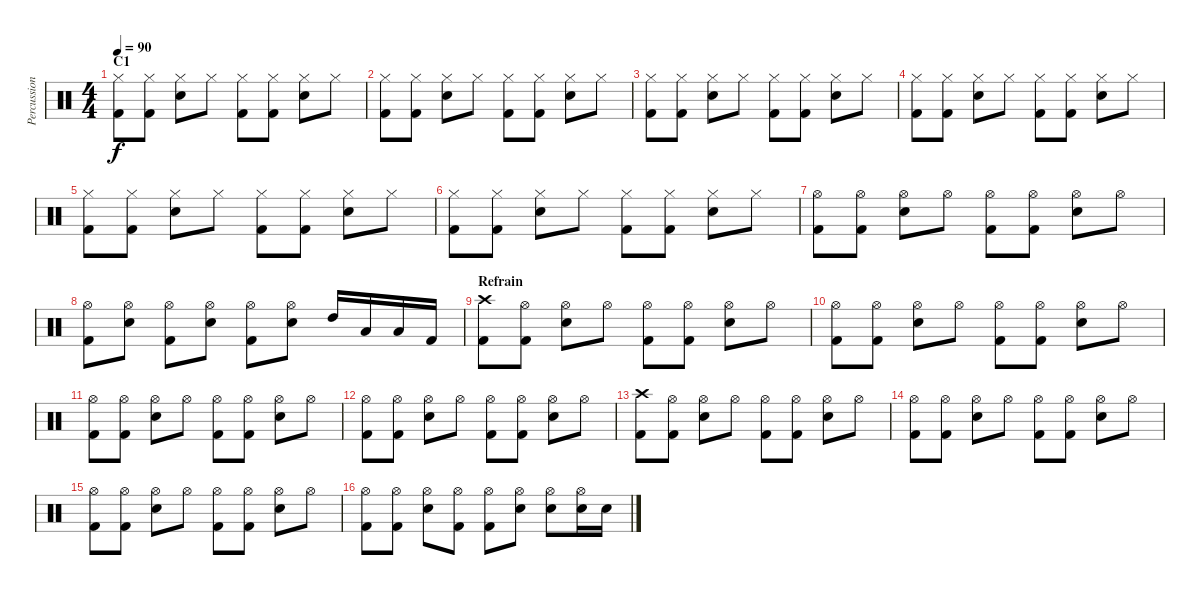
\track ("Percussions" "Percussion") {instrument percussion}
\staff {score}
\articulation defaults
\ts (4 4)
\section ("" "C1")
\tempo 90
\clef neutral
\ks c
("Hi-Hat (closed)" "Kick (hit) 2").8{dy f} ("Hi-Hat (closed)" "Kick (hit) 2").8 ("Hi-Hat (closed)" "Electric Snare (hit)").8 "Hi-Hat (closed)".8 ("Hi-Hat (closed)" "Kick (hit) 2").8 ("Hi-Hat (closed)" "Kick (hit) 2").8 ("Hi-Hat (closed)" "Electric Snare (hit)").8 "Hi-Hat (closed)".8 |
("Hi-Hat (closed)" "Kick (hit) 2").8 ("Hi-Hat (closed)" "Kick (hit) 2").8 ("Hi-Hat (closed)" "Electric Snare (hit)").8 "Hi-Hat (closed)".8 ("Hi-Hat (closed)" "Kick (hit) 2").8 ("Hi-Hat (closed)" "Kick (hit) 2").8 ("Hi-Hat (closed)" "Electric Snare (hit)").8 "Hi-Hat (closed)".8 |
("Hi-Hat (closed)" "Kick (hit) 2").8 ("Hi-Hat (closed)" "Kick (hit) 2").8 ("Hi-Hat (closed)" "Electric Snare (hit)").8 "Hi-Hat (closed)".8 ("Hi-Hat (closed)" "Kick (hit) 2").8 ("Hi-Hat (closed)" "Kick (hit) 2").8 ("Hi-Hat (closed)" "Electric Snare (hit)").8 "Hi-Hat (closed)".8 |
("Hi-Hat (closed)" "Kick (hit) 2").8 ("Hi-Hat (closed)" "Kick (hit) 2").8 ("Hi-Hat (closed)" "Electric Snare (hit)").8 "Hi-Hat (closed)".8 ("Hi-Hat (closed)" "Kick (hit) 2").8 ("Hi-Hat (closed)" "Kick (hit) 2").8 ("Hi-Hat (closed)" "Electric Snare (hit)").8 "Hi-Hat (closed)".8 |
("Hi-Hat (closed)" "Kick (hit) 2").8 ("Hi-Hat (closed)" "Kick (hit) 2").8 ("Hi-Hat (closed)" "Electric Snare (hit)").8 "Hi-Hat (closed)".8 ("Hi-Hat (closed)" "Kick (hit) 2").8 ("Hi-Hat (closed)" "Kick (hit) 2").8 ("Hi-Hat (closed)" "Electric Snare (hit)").8 "Hi-Hat (closed)".8 |
("Hi-Hat (closed)" "Kick (hit) 2").8 ("Hi-Hat (closed)" "Kick (hit) 2").8 ("Hi-Hat (closed)" "Electric Snare (hit)").8 "Hi-Hat (closed)".8 ("Hi-Hat (closed)" "Kick (hit) 2").8 ("Hi-Hat (closed)" "Kick (hit) 2").8 ("Hi-Hat (closed)" "Electric Snare (hit)").8 "Hi-Hat (closed)".8 |
("Hi-Hat (open)" "Kick (hit) 2").8 ("Hi-Hat (open)" "Kick (hit) 2").8 ("Hi-Hat (open)" "Snare (hit) 2").8 "Hi-Hat (open)".8 ("Hi-Hat (open)" "Kick (hit) 2").8 ("Hi-Hat (open)" "Kick (hit) 2").8 ("Hi-Hat (open)" "Snare (hit) 2").8 "Hi-Hat (open)".8 |
("Hi-Hat (open)" "Kick (hit) 2").8 ("Hi-Hat (open)" "Snare (hit) 2").8 ("Hi-Hat (open)" "Kick (hit) 2").8 ("Hi-Hat (open)" "Snare (hit) 2").8 ("Hi-Hat (open)" "Kick (hit) 2").8 ("Hi-Hat (open)" "Snare (hit) 2").8 "High Tom (hit)".16 "Low Tom (hit)".16 "Low Floor Tom (hit)".16 "Kick (hit) 2".16 |
\section ("" "Refrain")
("Crash high (hit)" "Kick (hit) 2").8 ("Hi-Hat (open)" "Kick (hit) 2").8 ("Hi-Hat (open)" "Snare (hit) 2").8 "Hi-Hat (open)".8 ("Hi-Hat (open)" "Kick (hit) 2").8 ("Hi-Hat (open)" "Kick (hit) 2").8 ("Hi-Hat (open)" "Snare (hit) 2").8 "Hi-Hat (open)".8 |
("Hi-Hat (open)" "Kick (hit) 2").8 ("Hi-Hat (open)" "Kick (hit) 2").8 ("Hi-Hat (open)" "Snare (hit) 2").8 "Hi-Hat (open)".8 ("Hi-Hat (open)" "Kick (hit) 2").8 ("Hi-Hat (open)" "Kick (hit) 2").8 ("Hi-Hat (open)" "Snare (hit) 2").8 "Hi-Hat (open)".8 |
("Hi-Hat (open)" "Kick (hit) 2").8 ("Hi-Hat (open)" "Kick (hit) 2").8 ("Hi-Hat (open)" "Snare (hit) 2").8 "Hi-Hat (open)".8 ("Hi-Hat (open)" "Kick (hit) 2").8 ("Hi-Hat (open)" "Kick (hit) 2").8 ("Hi-Hat (open)" "Snare (hit) 2").8 "Hi-Hat (open)".8 |
("Hi-Hat (open)" "Kick (hit) 2").8 ("Hi-Hat (open)" "Kick (hit) 2").8 ("Hi-Hat (open)" "Snare (hit) 2").8 "Hi-Hat (open)".8 ("Hi-Hat (open)" "Kick (hit) 2").8 ("Hi-Hat (open)" "Kick (hit) 2").8 ("Hi-Hat (open)" "Snare (hit) 2").8 "Hi-Hat (open)".8 |
("Crash high (hit)" "Kick (hit) 2").8 ("Hi-Hat (open)" "Kick (hit) 2").8 ("Hi-Hat (open)" "Snare (hit) 2").8 "Hi-Hat (open)".8 ("Hi-Hat (open)" "Kick (hit) 2").8 ("Hi-Hat (open)" "Kick (hit) 2").8 ("Hi-Hat (open)" "Snare (hit) 2").8 "Hi-Hat (open)".8 |
("Hi-Hat (open)" "Kick (hit) 2").8 ("Hi-Hat (open)" "Kick (hit) 2").8 ("Hi-Hat (open)" "Snare (hit) 2").8 "Hi-Hat (open)".8 ("Hi-Hat (open)" "Kick (hit) 2").8 ("Hi-Hat (open)" "Kick (hit) 2").8 ("Hi-Hat (open)" "Snare (hit) 2").8 "Hi-Hat (open)".8 |
("Hi-Hat (open)" "Kick (hit) 2").8 ("Hi-Hat (open)" "Kick (hit) 2").8 ("Hi-Hat (open)" "Snare (hit) 2").8 "Hi-Hat (open)".8 ("Hi-Hat (open)" "Kick (hit) 2").8 ("Hi-Hat (open)" "Kick (hit) 2").8 ("Hi-Hat (open)" "Snare (hit) 2").8 "Hi-Hat (open)".8 |
("Hi-Hat (open)" "Kick (hit) 2").8 ("Hi-Hat (open)" "Kick (hit) 2").8 ("Hi-Hat (open)" "Snare (hit) 2").8 ("Hi-Hat (open)" "Kick (hit) 2").8 ("Hi-Hat (open)" "Kick (hit) 2").8 ("Hi-Hat (open)" "Snare (hit) 2").8 ("Hi-Hat (open)" "Snare (hit) 2").8 ("Hi-Hat (open)" "Snare (hit) 2").16 "Snare (hit) 2".16
